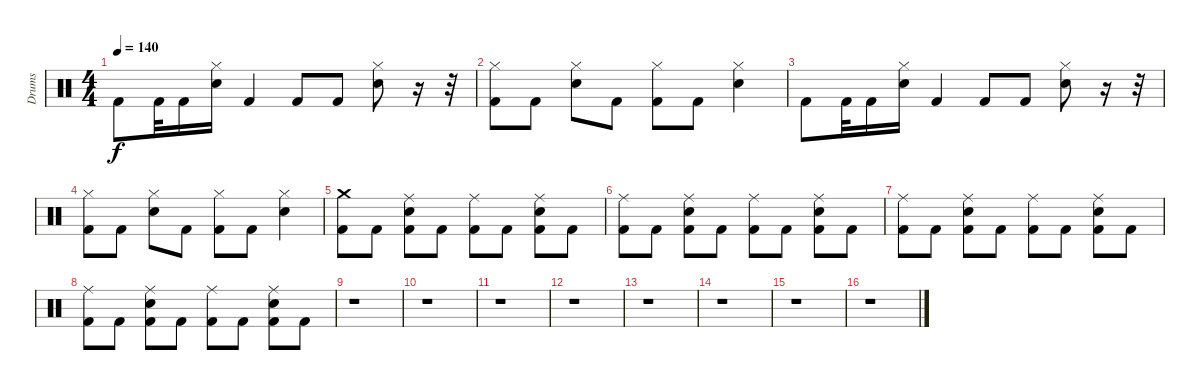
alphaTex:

\track ("Drums" "Drums") {instrument percussion}
\staff {score}
\articulation defaults
\ts (4 4)
\tempo 140
\clef neutral
\ks c "Kick (hit) 2".8{dy f} "Kick (hit) 2".32 "Kick (hit) 2".16
("Electric Snare (hit)" "Hi-Hat (closed)").16 "Kick (hit) 2".4 "Kick (hit) 2".8 "Kick (hit) 2".8 ("Electric Snare (hit)" "Hi-Hat (closed)").8 r.16 r.32 |
("Kick (hit) 2" "Hi-Hat (closed)").8 "Kick (hit) 2".8 ("Electric Snare (hit)" "Hi-Hat (closed)").8 "Kick (hit) 2".8 ("Kick (hit) 2" "Hi-Hat (closed)").8 "Kick (hit) 2".8 ("Electric Snare (hit)" "Hi-Hat (closed)").4 |
"Kick (hit) 2".8 "Kick (hit) 2".32 "Kick (hit) 2".16 ("Electric Snare (hit)" "Hi-Hat (closed)").16 "Kick (hit) 2".4 "Kick (hit) 2".8 "Kick (hit) 2".8 ("Electric Snare (hit)" "Hi-Hat (closed)").8 r.16 r.32 |
("Kick (hit) 2" "Hi-Hat (closed)").8 "Kick (hit) 2".8 ("Electric Snare (hit)" "Hi-Hat (closed)").8 "Kick (hit) 2".8 ("Kick (hit) 2" "Hi-Hat (closed)").8 "Kick (hit) 2".8 ("Electric Snare (hit)" "Hi-Hat (closed)").4 |
("Kick (hit) 2" "Crash medium (hit)").8 "Kick (hit) 2".8 ("Kick (hit) 2" "Electric Snare (hit)" "Ride (middle)").8 "Kick (hit) 2".8 ("Kick (hit) 2" "Ride (middle)").8 "Kick (hit) 2".8 ("Kick (hit) 2" "Electric Snare (hit)" "Ride (middle)").8 "Kick (hit) 2".8 |
("Kick (hit) 2" "Ride (middle)").8 "Kick (hit) 2".8 ("Kick (hit) 2" "Electric Snare (hit)" "Ride (middle)").8 "Kick (hit) 2".8 ("Kick (hit) 2" "Ride (middle)").8 "Kick (hit) 2".8 ("Kick (hit) 2" "Electric Snare (hit)" "Ride (middle)").8 "Kick (hit) 2".8 |
("Kick (hit) 2" "Ride (middle)").8 "Kick (hit) 2".8 ("Kick (hit) 2" "Electric Snare (hit)" "Ride (middle)").8 "Kick (hit) 2".8 ("Kick (hit) 2" "Ride (middle)").8 "Kick (hit) 2".8 ("Kick (hit) 2" "Electric Snare (hit)" "Ride (middle)").8 "Kick (hit) 2".8 |
("Kick (hit) 2" "Ride (middle)").8 "Kick (hit) 2".8 ("Kick (hit) 2" "Electric Snare (hit)" "Ride (middle)").8 "Kick (hit) 2".8 ("Kick (hit) 2" "Ride (middle)").8 "Kick (hit) 2".8 ("Kick (hit) 2" "Electric Snare (hit)" "Ride (middle)").8 "Kick (hit) 2".8 |
r.1 |
r.1 |
r.1 |
r.1 |
r.1 |
r.1 |
r.1 |
r.1
